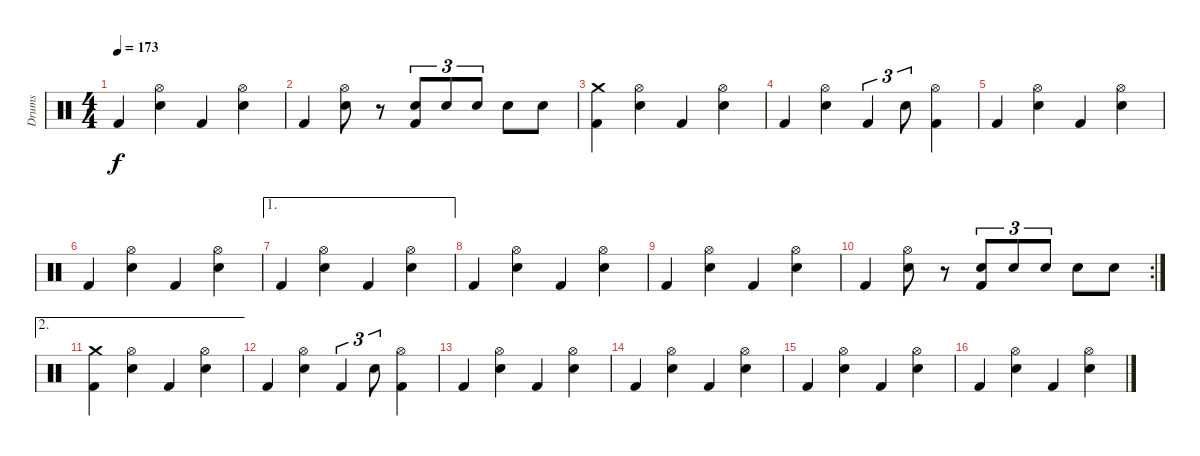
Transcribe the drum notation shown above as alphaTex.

\track ("Drums" "Drums") {instrument percussion}
\staff {score}
\articulation defaults
\ts (4 4)
\tempo 173
\clef neutral
\ks c "Kick (hit) 2".4{dy f}
("Electric Snare (hit)" "Hi-Hat (open)").4 "Kick (hit) 2".4 ("Electric Snare (hit)" "Hi-Hat (open)").4 |
"Kick (hit) 2".4 ("Hi-Hat (open)" "Electric Snare (hit)").8 r.8 ("Electric Snare (hit)" "Kick (hit) 2").8{tu (3 2)} "Electric Snare (hit)".8{tu (3 2)} "Electric Snare (hit)".8{tu (3 2)} "Electric Snare (hit)".8 "Electric Snare (hit)".8 |
("Kick (hit) 2" "Crash medium (hit)").4 ("Electric Snare (hit)" "Hi-Hat (open)").4 "Kick (hit) 2".4 ("Electric Snare (hit)" "Hi-Hat (open)").4 |
"Kick (hit) 2".4 ("Hi-Hat (open)" "Electric Snare (hit)").4 "Kick (hit) 2".4{tu (3 2)} "Electric Snare (hit)".8{tu (3 2)} ("Hi-Hat (open)" "Kick (hit) 2").4 |
"Kick (hit) 2".4 ("Electric Snare (hit)" "Hi-Hat (open)").4 "Kick (hit) 2".4 ("Electric Snare (hit)" "Hi-Hat (open)").4 |
"Kick (hit) 2".4 ("Electric Snare (hit)" "Hi-Hat (open)").4 "Kick (hit) 2".4 ("Electric Snare (hit)" "Hi-Hat (open)").4 |
\ae 1 "Kick (hit) 2".4
("Electric Snare (hit)" "Hi-Hat (open)").4 "Kick (hit) 2".4 ("Electric Snare (hit)" "Hi-Hat (open)").4 |
"Kick (hit) 2".4 ("Electric Snare (hit)" "Hi-Hat (open)").4 "Kick (hit) 2".4 ("Electric Snare (hit)" "Hi-Hat (open)").4 |
"Kick (hit) 2".4 ("Electric Snare (hit)" "Hi-Hat (open)").4 "Kick (hit) 2".4 ("Electric Snare (hit)" "Hi-Hat (open)").4 |
\rc 2 "Kick (hit) 2".4
("Hi-Hat (open)" "Electric Snare (hit)").8 r.8 ("Electric Snare (hit)" "Kick (hit) 2").8{tu (3 2)} "Electric Snare (hit)".8{tu (3 2)} "Electric Snare (hit)".8{tu (3 2)} "Electric Snare (hit)".8 "Electric Snare (hit)".8 |
\ae 2
("Kick (hit) 2" "Crash medium (hit)").4 ("Electric Snare (hit)" "Hi-Hat (open)").4 "Kick (hit) 2".4 ("Electric Snare (hit)" "Hi-Hat (open)").4 |
"Kick (hit) 2".4 ("Hi-Hat (open)" "Electric Snare (hit)").4 "Kick (hit) 2".4{tu (3 2)} "Electric Snare (hit)".8{tu (3 2)} ("Hi-Hat (open)" "Kick (hit) 2").4 |
"Kick (hit) 2".4 ("Electric Snare (hit)" "Hi-Hat (open)").4 "Kick (hit) 2".4 ("Electric Snare (hit)" "Hi-Hat (open)").4 |
"Kick (hit) 2".4 ("Electric Snare (hit)" "Hi-Hat (open)").4 "Kick (hit) 2".4 ("Electric Snare (hit)" "Hi-Hat (open)").4 |
"Kick (hit) 2".4 ("Electric Snare (hit)" "Hi-Hat (open)").4 "Kick (hit) 2".4 ("Electric Snare (hit)" "Hi-Hat (open)").4 |
"Kick (hit) 2".4 ("Electric Snare (hit)" "Hi-Hat (open)").4 "Kick (hit) 2".4 ("Electric Snare (hit)" "Hi-Hat (open)").4
